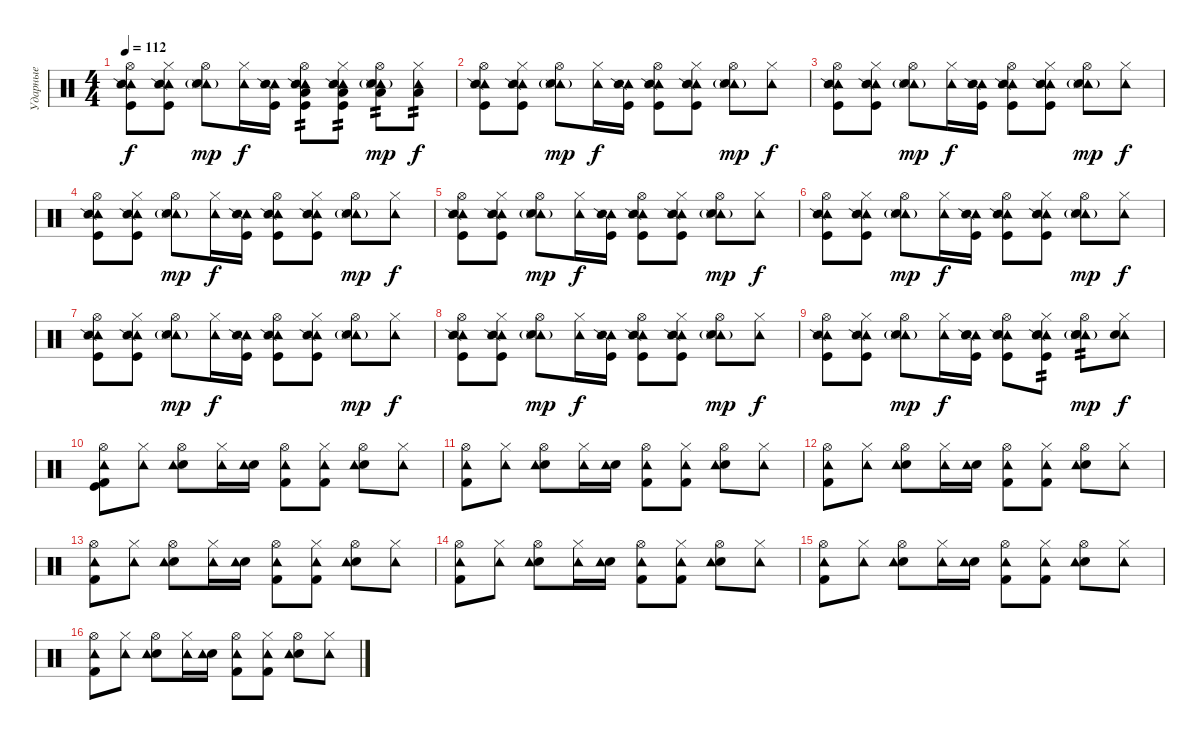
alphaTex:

\track ("Ударные" "Ударные") {instrument percussion}
\staff {score}
\articulation defaults
\ts (4 4)
\tempo 112
\clef neutral
\ks c
("Hi-Hat (open)" "Tambourine (hit)" "Kick (hit)" "Snare (side stick) 2").8{dy f} ("Hi-Hat (closed)" "Tambourine (hit)" "Kick (hit)" "Snare (side stick) 2").8 ("Hi-Hat (open)" "Tambourine (hit)" "Electric Snare (hit)"{g} "Snare (side stick) 3").8{dy mp} ("Hi-Hat (closed)" "Tambourine (hit)").16{dy f} ("Tambourine (hit)" "Kick (hit)" "Snare (side stick) 2").16 ("Hi-Hat (open)" "Tambourine (hit)" "Low Floor Tom (hit)" "Kick (hit)" "Snare (side stick) 2").8{tp 2} ("Hi-Hat (closed)" "Tambourine (hit)" "Low Floor Tom (hit)" "Kick (hit)" "Snare (side stick) 2").8{tp 2} ("Hi-Hat (open)" "Tambourine (hit)" "Low Floor Tom (hit)" "Electric Snare (hit)"{g} "Snare (side stick) 3").8{tp 2 dy mp} ("Hi-Hat (closed)" "Tambourine (hit)" "Low Floor Tom (hit)").8{tp 2 dy f} |
("Hi-Hat (open)" "Tambourine (hit)" "Kick (hit)" "Snare (side stick) 2").8 ("Hi-Hat (closed)" "Tambourine (hit)" "Kick (hit)" "Snare (side stick) 2").8 ("Hi-Hat (open)" "Tambourine (hit)" "Electric Snare (hit)"{g} "Snare (side stick) 3").8{dy mp} ("Hi-Hat (closed)" "Tambourine (hit)").16{dy f} ("Tambourine (hit)" "Kick (hit)" "Snare (side stick) 2").16 ("Hi-Hat (open)" "Tambourine (hit)" "Kick (hit)" "Snare (side stick) 2").8 ("Hi-Hat (closed)" "Tambourine (hit)" "Kick (hit)" "Snare (side stick) 2").8 ("Hi-Hat (open)" "Tambourine (hit)" "Electric Snare (hit)"{g} "Snare (side stick) 3").8{dy mp} ("Hi-Hat (closed)" "Tambourine (hit)").8{dy f} |
("Hi-Hat (open)" "Tambourine (hit)" "Kick (hit)" "Snare (side stick) 2").8 ("Hi-Hat (closed)" "Tambourine (hit)" "Kick (hit)" "Snare (side stick) 2").8 ("Hi-Hat (open)" "Tambourine (hit)" "Electric Snare (hit)"{g} "Snare (side stick) 3").8{dy mp} ("Hi-Hat (closed)" "Tambourine (hit)").16{dy f} ("Tambourine (hit)" "Kick (hit)" "Snare (side stick) 2").16 ("Hi-Hat (open)" "Tambourine (hit)" "Kick (hit)" "Snare (side stick) 2").8 ("Hi-Hat (closed)" "Tambourine (hit)" "Kick (hit)" "Snare (side stick) 2").8 ("Hi-Hat (open)" "Tambourine (hit)" "Electric Snare (hit)"{g} "Snare (side stick) 3").8{dy mp} ("Hi-Hat (closed)" "Tambourine (hit)").8{dy f} |
("Hi-Hat (open)" "Tambourine (hit)" "Kick (hit)" "Snare (side stick) 2").8 ("Hi-Hat (closed)" "Tambourine (hit)" "Kick (hit)" "Snare (side stick) 2").8 ("Hi-Hat (open)" "Tambourine (hit)" "Electric Snare (hit)"{g} "Snare (side stick) 3").8{dy mp} ("Hi-Hat (closed)" "Tambourine (hit)").16{dy f} ("Tambourine (hit)" "Kick (hit)" "Snare (side stick) 2").16 ("Hi-Hat (open)" "Tambourine (hit)" "Kick (hit)" "Snare (side stick) 2").8 ("Hi-Hat (closed)" "Tambourine (hit)" "Kick (hit)" "Snare (side stick) 2").8 ("Hi-Hat (open)" "Tambourine (hit)" "Electric Snare (hit)"{g} "Snare (side stick) 3").8{dy mp} ("Hi-Hat (closed)" "Tambourine (hit)").8{dy f} |
("Hi-Hat (open)" "Tambourine (hit)" "Kick (hit)" "Snare (side stick) 2").8 ("Hi-Hat (closed)" "Tambourine (hit)" "Kick (hit)" "Snare (side stick) 2").8 ("Hi-Hat (open)" "Tambourine (hit)" "Electric Snare (hit)"{g} "Snare (side stick) 3").8{dy mp} ("Hi-Hat (closed)" "Tambourine (hit)").16{dy f} ("Tambourine (hit)" "Kick (hit)" "Snare (side stick) 2").16 ("Hi-Hat (open)" "Tambourine (hit)" "Kick (hit)" "Snare (side stick) 2").8 ("Hi-Hat (closed)" "Tambourine (hit)" "Kick (hit)" "Snare (side stick) 2").8 ("Hi-Hat (open)" "Tambourine (hit)" "Electric Snare (hit)"{g} "Snare (side stick) 3").8{dy mp} ("Hi-Hat (closed)" "Tambourine (hit)").8{dy f} |
("Hi-Hat (open)" "Tambourine (hit)" "Kick (hit)" "Snare (side stick) 2").8 ("Hi-Hat (closed)" "Tambourine (hit)" "Kick (hit)" "Snare (side stick) 2").8 ("Hi-Hat (open)" "Tambourine (hit)" "Electric Snare (hit)"{g} "Snare (side stick) 3").8{dy mp} ("Hi-Hat (closed)" "Tambourine (hit)").16{dy f} ("Tambourine (hit)" "Kick (hit)" "Snare (side stick) 2").16 ("Hi-Hat (open)" "Tambourine (hit)" "Kick (hit)" "Snare (side stick) 2").8 ("Hi-Hat (closed)" "Tambourine (hit)" "Kick (hit)" "Snare (side stick) 2").8 ("Hi-Hat (open)" "Tambourine (hit)" "Electric Snare (hit)"{g} "Snare (side stick) 3").8{dy mp} ("Hi-Hat (closed)" "Tambourine (hit)").8{dy f} |
("Hi-Hat (open)" "Tambourine (hit)" "Kick (hit)" "Snare (side stick) 2").8 ("Hi-Hat (closed)" "Tambourine (hit)" "Kick (hit)" "Snare (side stick) 2").8 ("Hi-Hat (open)" "Tambourine (hit)" "Electric Snare (hit)"{g} "Snare (side stick) 3").8{dy mp} ("Hi-Hat (closed)" "Tambourine (hit)").16{dy f} ("Tambourine (hit)" "Kick (hit)" "Snare (side stick) 2").16 ("Hi-Hat (open)" "Tambourine (hit)" "Kick (hit)" "Snare (side stick) 2").8 ("Hi-Hat (closed)" "Tambourine (hit)" "Kick (hit)" "Snare (side stick) 2").8 ("Hi-Hat (open)" "Tambourine (hit)" "Electric Snare (hit)"{g} "Snare (side stick) 3").8{dy mp} ("Hi-Hat (closed)" "Tambourine (hit)").8{dy f} |
("Hi-Hat (open)" "Tambourine (hit)" "Kick (hit)" "Snare (side stick) 2").8 ("Hi-Hat (closed)" "Tambourine (hit)" "Kick (hit)" "Snare (side stick) 2").8 ("Hi-Hat (open)" "Tambourine (hit)" "Electric Snare (hit)"{g} "Snare (side stick) 3").8{dy mp} ("Hi-Hat (closed)" "Tambourine (hit)").16{dy f} ("Tambourine (hit)" "Kick (hit)" "Snare (side stick) 2").16 ("Hi-Hat (open)" "Tambourine (hit)" "Kick (hit)" "Snare (side stick) 2").8 ("Hi-Hat (closed)" "Tambourine (hit)" "Kick (hit)" "Snare (side stick) 2").8 ("Hi-Hat (open)" "Tambourine (hit)" "Electric Snare (hit)"{g} "Snare (side stick) 3").8{dy mp} ("Hi-Hat (closed)" "Tambourine (hit)").8{dy f} |
("Hi-Hat (open)" "Tambourine (hit)" "Kick (hit)" "Snare (side stick) 2").8 ("Hi-Hat (closed)" "Tambourine (hit)" "Kick (hit)" "Snare (side stick) 2").8 ("Hi-Hat (open)" "Tambourine (hit)" "Electric Snare (hit)"{g} "Snare (side stick) 3").8{dy mp} ("Hi-Hat (closed)" "Tambourine (hit)").16{dy f} ("Tambourine (hit)" "Electric Snare (hit)" "Kick (hit)" "Snare (side stick) 2").16 ("Hi-Hat (open)" "Tambourine (hit)" "Electric Snare (hit)" "Kick (hit)" "Snare (side stick) 2").8 ("Hi-Hat (closed)" "Tambourine (hit)" "Electric Snare (hit)" "Kick (hit)" "Snare (side stick) 2").8{tp 2} ("Hi-Hat (open)" "Tambourine (hit)" "Electric Snare (hit)" "Electric Snare (hit)"{g} "Snare (side stick) 3").8{tp 2 dy mp} ("Hi-Hat (closed)" "Tambourine (hit)" "Electric Snare (hit)").8{dy f} |
("Hi-Hat (open)" "Kick (hit) 2" "Tambourine (hit)" "Kick (hit)").8 ("Hi-Hat (closed)" "Tambourine (hit)").8 ("Hi-Hat (open)" "Electric Snare (hit)" "Tambourine (hit)").8 ("Hi-Hat (closed)" "Tambourine (hit)").16 ("Electric Snare (hit)" "Tambourine (hit)").16 ("Hi-Hat (open)" "Kick (hit) 2" "Tambourine (hit)").8 ("Hi-Hat (closed)" "Kick (hit) 2" "Tambourine (hit)").8 ("Hi-Hat (open)" "Electric Snare (hit)" "Tambourine (hit)").8 ("Hi-Hat (closed)" "Tambourine (hit)").8 |
("Hi-Hat (open)" "Kick (hit) 2" "Tambourine (hit)").8 ("Hi-Hat (closed)" "Tambourine (hit)").8 ("Hi-Hat (open)" "Electric Snare (hit)" "Tambourine (hit)").8 ("Hi-Hat (closed)" "Tambourine (hit)").16 ("Electric Snare (hit)" "Tambourine (hit)").16 ("Hi-Hat (open)" "Kick (hit) 2" "Tambourine (hit)").8 ("Hi-Hat (closed)" "Kick (hit) 2" "Tambourine (hit)").8 ("Hi-Hat (open)" "Electric Snare (hit)" "Tambourine (hit)").8 ("Hi-Hat (closed)" "Tambourine (hit)").8 |
("Hi-Hat (open)" "Kick (hit) 2" "Tambourine (hit)").8 ("Hi-Hat (closed)" "Tambourine (hit)").8 ("Hi-Hat (open)" "Electric Snare (hit)" "Tambourine (hit)").8 ("Hi-Hat (closed)" "Tambourine (hit)").16 ("Electric Snare (hit)" "Tambourine (hit)").16 ("Hi-Hat (open)" "Kick (hit) 2" "Tambourine (hit)").8 ("Hi-Hat (closed)" "Kick (hit) 2" "Tambourine (hit)").8 ("Hi-Hat (open)" "Electric Snare (hit)" "Tambourine (hit)").8 ("Hi-Hat (closed)" "Tambourine (hit)").8 |
("Hi-Hat (open)" "Kick (hit) 2" "Tambourine (hit)").8 ("Hi-Hat (closed)" "Tambourine (hit)").8 ("Hi-Hat (open)" "Electric Snare (hit)" "Tambourine (hit)").8 ("Hi-Hat (closed)" "Tambourine (hit)").16 ("Electric Snare (hit)" "Tambourine (hit)").16 ("Hi-Hat (open)" "Kick (hit) 2" "Tambourine (hit)").8 ("Hi-Hat (closed)" "Kick (hit) 2" "Tambourine (hit)").8 ("Hi-Hat (open)" "Electric Snare (hit)" "Tambourine (hit)").8 ("Hi-Hat (closed)" "Tambourine (hit)").8 |
("Hi-Hat (open)" "Kick (hit) 2" "Tambourine (hit)").8 ("Hi-Hat (closed)" "Tambourine (hit)").8 ("Hi-Hat (open)" "Electric Snare (hit)" "Tambourine (hit)").8 ("Hi-Hat (closed)" "Tambourine (hit)").16 ("Electric Snare (hit)" "Tambourine (hit)").16 ("Hi-Hat (open)" "Kick (hit) 2" "Tambourine (hit)").8 ("Hi-Hat (closed)" "Kick (hit) 2" "Tambourine (hit)").8 ("Hi-Hat (open)" "Electric Snare (hit)" "Tambourine (hit)").8 ("Hi-Hat (closed)" "Tambourine (hit)").8 |
("Hi-Hat (open)" "Kick (hit) 2" "Tambourine (hit)").8 ("Hi-Hat (closed)" "Tambourine (hit)").8 ("Hi-Hat (open)" "Electric Snare (hit)" "Tambourine (hit)").8 ("Hi-Hat (closed)" "Tambourine (hit)").16 ("Electric Snare (hit)" "Tambourine (hit)").16 ("Hi-Hat (open)" "Kick (hit) 2" "Tambourine (hit)").8 ("Hi-Hat (closed)" "Kick (hit) 2" "Tambourine (hit)").8 ("Hi-Hat (open)" "Electric Snare (hit)" "Tambourine (hit)").8 ("Hi-Hat (closed)" "Tambourine (hit)").8 |
("Hi-Hat (open)" "Kick (hit) 2" "Tambourine (hit)").8 ("Hi-Hat (closed)" "Tambourine (hit)").8 ("Hi-Hat (open)" "Electric Snare (hit)" "Tambourine (hit)").8 ("Hi-Hat (closed)" "Tambourine (hit)").16 ("Electric Snare (hit)" "Tambourine (hit)").16 ("Hi-Hat (open)" "Kick (hit) 2" "Tambourine (hit)").8 ("Hi-Hat (closed)" "Kick (hit) 2" "Tambourine (hit)").8 ("Hi-Hat (open)" "Electric Snare (hit)" "Tambourine (hit)").8 ("Hi-Hat (closed)" "Tambourine (hit)").8
